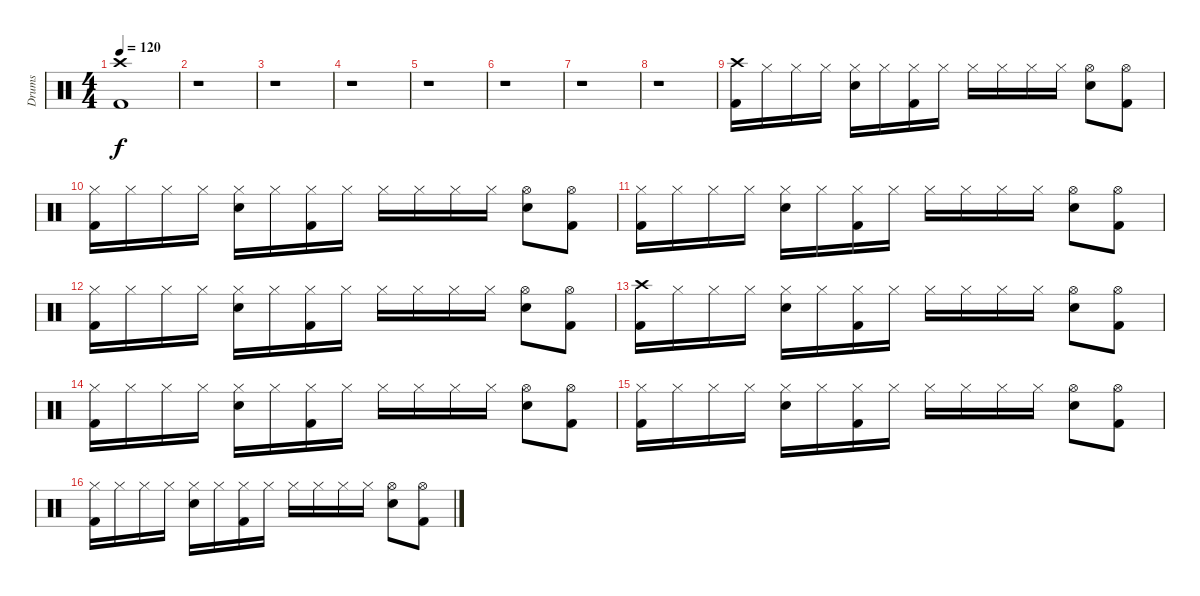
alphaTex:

\track ("Drums" "Drums") {instrument percussion}
\staff {score}
\articulation defaults
\ts (4 4)
\tempo 120
\clef neutral
\ks c
("Crash high (hit)" "Kick (hit) 2").1{dy f} |
r.1 |
r.1 |
r.1 |
r.1 |
r.1 |
r.1 |
r.1 |
("Crash high (hit)" "Kick (hit) 2").16 "Hi-Hat (closed)".16 "Hi-Hat (closed)".16 "Hi-Hat (closed)".16 ("Hi-Hat (closed)" "Snare (hit) 2").16 "Hi-Hat (closed)".16 ("Hi-Hat (closed)" "Kick (hit) 2").16 "Hi-Hat (closed)".16 "Hi-Hat (closed)".16 "Hi-Hat (closed)".16 "Hi-Hat (closed)".16 "Hi-Hat (closed)".16 ("Hi-Hat (open)" "Snare (hit) 2").8 ("Hi-Hat (open)" "Kick (hit) 2").8 |
("Hi-Hat (closed)" "Kick (hit) 2").16 "Hi-Hat (closed)".16 "Hi-Hat (closed)".16 "Hi-Hat (closed)".16 ("Hi-Hat (closed)" "Snare (hit) 2").16 "Hi-Hat (closed)".16 ("Hi-Hat (closed)" "Kick (hit) 2").16 "Hi-Hat (closed)".16 "Hi-Hat (closed)".16 "Hi-Hat (closed)".16 "Hi-Hat (closed)".16 "Hi-Hat (closed)".16 ("Hi-Hat (open)" "Snare (hit) 2").8 ("Hi-Hat (open)" "Kick (hit) 2").8 |
("Hi-Hat (closed)" "Kick (hit) 2").16 "Hi-Hat (closed)".16 "Hi-Hat (closed)".16 "Hi-Hat (closed)".16 ("Hi-Hat (closed)" "Snare (hit) 2").16 "Hi-Hat (closed)".16 ("Hi-Hat (closed)" "Kick (hit) 2").16 "Hi-Hat (closed)".16 "Hi-Hat (closed)".16 "Hi-Hat (closed)".16 "Hi-Hat (closed)".16 "Hi-Hat (closed)".16 ("Hi-Hat (open)" "Snare (hit) 2").8 ("Hi-Hat (open)" "Kick (hit) 2").8 |
("Hi-Hat (closed)" "Kick (hit) 2").16 "Hi-Hat (closed)".16 "Hi-Hat (closed)".16 "Hi-Hat (closed)".16 ("Hi-Hat (closed)" "Snare (hit) 2").16 "Hi-Hat (closed)".16 ("Hi-Hat (closed)" "Kick (hit) 2").16 "Hi-Hat (closed)".16 "Hi-Hat (closed)".16 "Hi-Hat (closed)".16 "Hi-Hat (closed)".16 "Hi-Hat (closed)".16 ("Hi-Hat (open)" "Snare (hit) 2").8 ("Hi-Hat (open)" "Kick (hit) 2").8 |
("Crash high (hit)" "Kick (hit) 2").16 "Hi-Hat (closed)".16 "Hi-Hat (closed)".16 "Hi-Hat (closed)".16 ("Hi-Hat (closed)" "Snare (hit) 2").16 "Hi-Hat (closed)".16 ("Hi-Hat (closed)" "Kick (hit) 2").16 "Hi-Hat (closed)".16 "Hi-Hat (closed)".16 "Hi-Hat (closed)".16 "Hi-Hat (closed)".16 "Hi-Hat (closed)".16 ("Hi-Hat (open)" "Snare (hit) 2").8 ("Hi-Hat (open)" "Kick (hit) 2").8 |
("Hi-Hat (closed)" "Kick (hit) 2").16 "Hi-Hat (closed)".16 "Hi-Hat (closed)".16 "Hi-Hat (closed)".16 ("Hi-Hat (closed)" "Snare (hit) 2").16 "Hi-Hat (closed)".16 ("Hi-Hat (closed)" "Kick (hit) 2").16 "Hi-Hat (closed)".16 "Hi-Hat (closed)".16 "Hi-Hat (closed)".16 "Hi-Hat (closed)".16 "Hi-Hat (closed)".16 ("Hi-Hat (open)" "Snare (hit) 2").8 ("Hi-Hat (open)" "Kick (hit) 2").8 |
("Hi-Hat (closed)" "Kick (hit) 2").16 "Hi-Hat (closed)".16 "Hi-Hat (closed)".16 "Hi-Hat (closed)".16 ("Hi-Hat (closed)" "Snare (hit) 2").16 "Hi-Hat (closed)".16 ("Hi-Hat (closed)" "Kick (hit) 2").16 "Hi-Hat (closed)".16 "Hi-Hat (closed)".16 "Hi-Hat (closed)".16 "Hi-Hat (closed)".16 "Hi-Hat (closed)".16 ("Hi-Hat (open)" "Snare (hit) 2").8 ("Hi-Hat (open)" "Kick (hit) 2").8 |
("Hi-Hat (closed)" "Kick (hit) 2").16 "Hi-Hat (closed)".16 "Hi-Hat (closed)".16 "Hi-Hat (closed)".16 ("Hi-Hat (closed)" "Snare (hit) 2").16 "Hi-Hat (closed)".16 ("Hi-Hat (closed)" "Kick (hit) 2").16 "Hi-Hat (closed)".16 "Hi-Hat (closed)".16 "Hi-Hat (closed)".16 "Hi-Hat (closed)".16 "Hi-Hat (closed)".16 ("Hi-Hat (open)" "Snare (hit) 2").8 ("Hi-Hat (open)" "Kick (hit) 2").8
